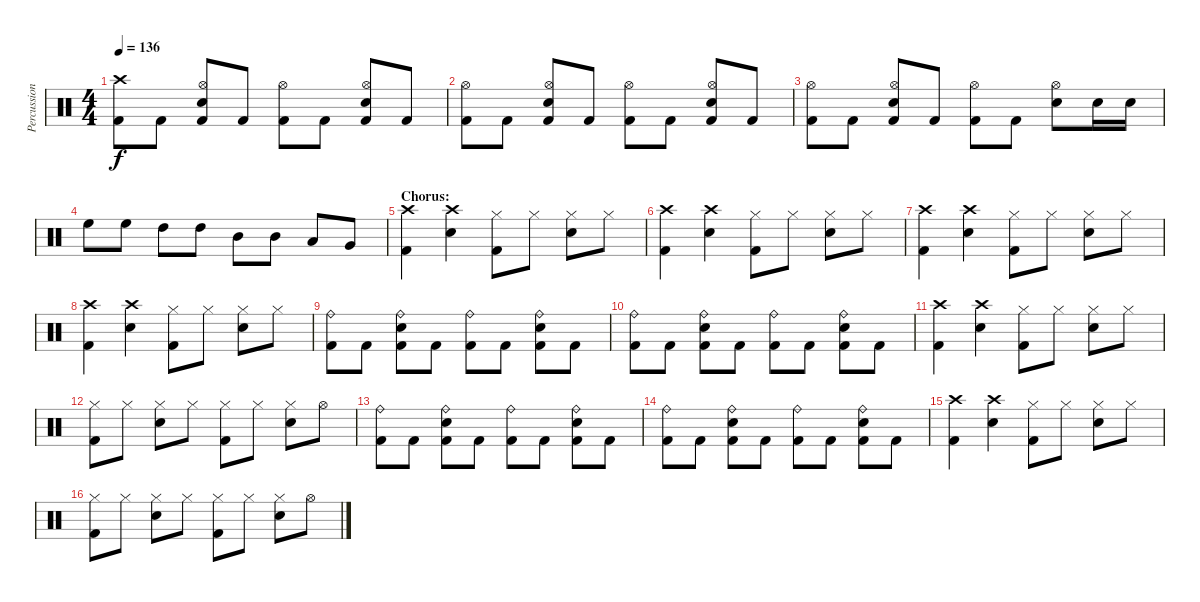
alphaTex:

\track ("Percussion" "Percussion") {instrument percussion}
\staff {score}
\articulation defaults
\ts (4 4)
\tempo 136
\clef neutral
\ks c
("Crash high (hit)" "Kick (hit) 2").8{dy f} "Kick (hit) 2".8 ("Hi-Hat (open)" "Electric Snare (hit)" "Kick (hit) 2").8 "Kick (hit) 2".8 ("Hi-Hat (open)" "Kick (hit) 2").8 "Kick (hit) 2".8 ("Hi-Hat (open)" "Electric Snare (hit)" "Kick (hit) 2").8 "Kick (hit) 2".8 |
("Hi-Hat (open)" "Kick (hit) 2").8 "Kick (hit) 2".8 ("Hi-Hat (open)" "Electric Snare (hit)" "Kick (hit) 2").8 "Kick (hit) 2".8 ("Hi-Hat (open)" "Kick (hit) 2").8 "Kick (hit) 2".8 ("Hi-Hat (open)" "Electric Snare (hit)" "Kick (hit) 2").8 "Kick (hit) 2".8 |
("Hi-Hat (open)" "Kick (hit) 2").8 "Kick (hit) 2".8 ("Hi-Hat (open)" "Electric Snare (hit)" "Kick (hit) 2").8 "Kick (hit) 2".8 ("Hi-Hat (open)" "Kick (hit) 2").8 "Kick (hit) 2".8 ("Hi-Hat (open)" "Electric Snare (hit)").8 "Electric Snare (hit)".16 "Electric Snare (hit)".16 |
"High Floor Tom (hit)".8 "High Floor Tom (hit)".8 "High Tom (hit)".8 "High Tom (hit)".8 "Mid Tom (hit)".8 "Mid Tom (hit)".8 "Low Tom (hit)".8 "Very Low Tom (hit)".8 |
\section ("" "Chorus:")
("Crash high (hit)" "Kick (hit) 2").4 ("Crash high (hit)" "Electric Snare (hit)").4 ("Hi-Hat (closed)" "Kick (hit) 2").8 "Hi-Hat (closed)".8 ("Hi-Hat (closed)" "Electric Snare (hit)").8 "Hi-Hat (closed)".8 |
("Crash high (hit)" "Kick (hit) 2").4 ("Crash high (hit)" "Electric Snare (hit)").4 ("Hi-Hat (closed)" "Kick (hit) 2").8 "Hi-Hat (closed)".8 ("Hi-Hat (closed)" "Electric Snare (hit)").8 "Hi-Hat (closed)".8 |
("Crash high (hit)" "Kick (hit) 2").4 ("Crash high (hit)" "Electric Snare (hit)").4 ("Hi-Hat (closed)" "Kick (hit) 2").8 "Hi-Hat (closed)".8 ("Hi-Hat (closed)" "Electric Snare (hit)").8 "Hi-Hat (closed)".8 |
("Crash high (hit)" "Kick (hit) 2").4 ("Crash high (hit)" "Electric Snare (hit)").4 ("Hi-Hat (closed)" "Kick (hit) 2").8 "Hi-Hat (closed)".8 ("Hi-Hat (closed)" "Electric Snare (hit)").8 "Hi-Hat (closed)".8 |
("Ride (bell)" "Kick (hit) 2").8 "Kick (hit) 2".8 ("Ride (bell)" "Electric Snare (hit)" "Kick (hit) 2").8 "Kick (hit) 2".8 ("Ride (bell)" "Kick (hit) 2").8 "Kick (hit) 2".8 ("Ride (bell)" "Electric Snare (hit)" "Kick (hit) 2").8 "Kick (hit) 2".8 |
("Ride (bell)" "Kick (hit) 2").8 "Kick (hit) 2".8 ("Ride (bell)" "Electric Snare (hit)" "Kick (hit) 2").8 "Kick (hit) 2".8 ("Ride (bell)" "Kick (hit) 2").8 "Kick (hit) 2".8 ("Ride (bell)" "Electric Snare (hit)" "Kick (hit) 2").8 "Kick (hit) 2".8 |
("Crash high (hit)" "Kick (hit) 2").4 ("Crash high (hit)" "Electric Snare (hit)").4 ("Hi-Hat (closed)" "Kick (hit) 2").8 "Hi-Hat (closed)".8 ("Hi-Hat (closed)" "Electric Snare (hit)").8 "Hi-Hat (closed)".8 |
("Hi-Hat (closed)" "Kick (hit) 2").8 "Hi-Hat (closed)".8 ("Hi-Hat (closed)" "Electric Snare (hit)").8 "Hi-Hat (closed)".8 ("Hi-Hat (closed)" "Kick (hit) 2").8 "Hi-Hat (closed)".8 ("Hi-Hat (closed)" "Electric Snare (hit)").8 "Hi-Hat (open)".8 |
("Ride (bell)" "Kick (hit) 2").8 "Kick (hit) 2".8 ("Ride (bell)" "Electric Snare (hit)" "Kick (hit) 2").8 "Kick (hit) 2".8 ("Ride (bell)" "Kick (hit) 2").8 "Kick (hit) 2".8 ("Ride (bell)" "Electric Snare (hit)" "Kick (hit) 2").8 "Kick (hit) 2".8 |
("Ride (bell)" "Kick (hit) 2").8 "Kick (hit) 2".8 ("Ride (bell)" "Electric Snare (hit)" "Kick (hit) 2").8 "Kick (hit) 2".8 ("Ride (bell)" "Kick (hit) 2").8 "Kick (hit) 2".8 ("Ride (bell)" "Electric Snare (hit)" "Kick (hit) 2").8 "Kick (hit) 2".8 |
("Crash high (hit)" "Kick (hit) 2").4 ("Crash high (hit)" "Electric Snare (hit)").4 ("Hi-Hat (closed)" "Kick (hit) 2").8 "Hi-Hat (closed)".8 ("Hi-Hat (closed)" "Electric Snare (hit)").8 "Hi-Hat (closed)".8 |
("Hi-Hat (closed)" "Kick (hit) 2").8 "Hi-Hat (closed)".8 ("Hi-Hat (closed)" "Electric Snare (hit)").8 "Hi-Hat (closed)".8 ("Hi-Hat (closed)" "Kick (hit) 2").8 "Hi-Hat (closed)".8 ("Hi-Hat (closed)" "Electric Snare (hit)").8 "Hi-Hat (open)".8
